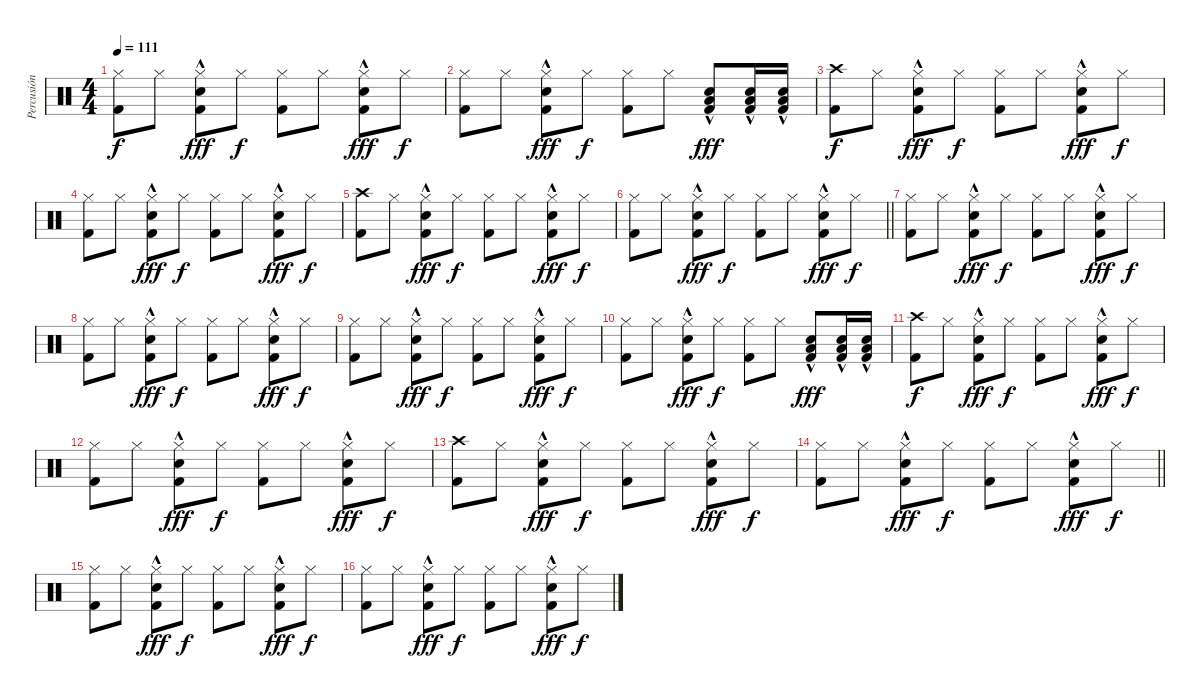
\track ("Percusión" "Percusión") {instrument percussion}
\staff {score}
\articulation defaults
\ts (4 4)
\tempo 111
\clef neutral
\ks c
("Hi-Hat (closed)" "Kick (hit) 2").8{dy f} "Hi-Hat (closed)".8 ("Electric Snare (hit)"{hac} "Hi-Hat (closed)"{hac} "Kick (hit) 2"{hac}).8{dy fff} "Hi-Hat (closed)".8{dy f} ("Hi-Hat (closed)" "Kick (hit) 2").8 "Hi-Hat (closed)".8 ("Electric Snare (hit)"{hac} "Hi-Hat (closed)"{hac} "Kick (hit) 2"{hac}).8{dy fff} "Hi-Hat (closed)".8{dy f} |
("Hi-Hat (closed)" "Kick (hit) 2").8 "Hi-Hat (closed)".8 ("Electric Snare (hit)"{hac} "Hi-Hat (closed)"{hac} "Kick (hit) 2"{hac}).8{dy fff} "Hi-Hat (closed)".8{dy f} ("Hi-Hat (closed)" "Kick (hit) 2").8 "Hi-Hat (closed)".8 ("Snare (hit) 2"{hac} "Low Floor Tom (hit)"{hac} "Kick (hit) 2"{hac}).8{dy fff} ("Snare (hit) 2"{hac} "Low Floor Tom (hit)"{hac} "Kick (hit) 2"{hac}).16 ("Snare (hit) 2"{hac} "Low Floor Tom (hit)"{hac} "Kick (hit) 2"{hac}).16 |
("Crash high (hit)" "Kick (hit) 2").8{dy f} "Hi-Hat (closed)".8 ("Electric Snare (hit)"{hac} "Hi-Hat (closed)"{hac} "Kick (hit) 2"{hac}).8{dy fff} "Hi-Hat (closed)".8{dy f} ("Hi-Hat (closed)" "Kick (hit) 2").8 "Hi-Hat (closed)".8 ("Electric Snare (hit)"{hac} "Hi-Hat (closed)"{hac} "Kick (hit) 2"{hac}).8{dy fff} "Hi-Hat (closed)".8{dy f} |
("Hi-Hat (closed)" "Kick (hit) 2").8 "Hi-Hat (closed)".8 ("Electric Snare (hit)"{hac} "Hi-Hat (closed)"{hac} "Kick (hit) 2"{hac}).8{dy fff} "Hi-Hat (closed)".8{dy f} ("Hi-Hat (closed)" "Kick (hit) 2").8 "Hi-Hat (closed)".8 ("Electric Snare (hit)"{hac} "Hi-Hat (closed)"{hac} "Kick (hit) 2"{hac}).8{dy fff} "Hi-Hat (closed)".8{dy f} |
("Crash high (hit)" "Kick (hit) 2").8 "Hi-Hat (closed)".8 ("Electric Snare (hit)"{hac} "Hi-Hat (closed)"{hac} "Kick (hit) 2"{hac}).8{dy fff} "Hi-Hat (closed)".8{dy f} ("Hi-Hat (closed)" "Kick (hit) 2").8 "Hi-Hat (closed)".8 ("Electric Snare (hit)"{hac} "Hi-Hat (closed)"{hac} "Kick (hit) 2"{hac}).8{dy fff} "Hi-Hat (closed)".8{dy f} |
\barLineRight lightlight
("Hi-Hat (closed)" "Kick (hit) 2").8 "Hi-Hat (closed)".8 ("Electric Snare (hit)"{hac} "Hi-Hat (closed)"{hac} "Kick (hit) 2"{hac}).8{dy fff} "Hi-Hat (closed)".8{dy f} ("Hi-Hat (closed)" "Kick (hit) 2").8 "Hi-Hat (closed)".8 ("Electric Snare (hit)"{hac} "Hi-Hat (closed)"{hac} "Kick (hit) 2"{hac}).8{dy fff} "Hi-Hat (closed)".8{dy f} |
("Hi-Hat (closed)" "Kick (hit) 2").8 "Hi-Hat (closed)".8 ("Electric Snare (hit)"{hac} "Hi-Hat (closed)"{hac} "Kick (hit) 2"{hac}).8{dy fff} "Hi-Hat (closed)".8{dy f} ("Hi-Hat (closed)" "Kick (hit) 2").8 "Hi-Hat (closed)".8 ("Electric Snare (hit)"{hac} "Hi-Hat (closed)"{hac} "Kick (hit) 2"{hac}).8{dy fff} "Hi-Hat (closed)".8{dy f} |
("Hi-Hat (closed)" "Kick (hit) 2").8 "Hi-Hat (closed)".8 ("Electric Snare (hit)"{hac} "Hi-Hat (closed)"{hac} "Kick (hit) 2"{hac}).8{dy fff} "Hi-Hat (closed)".8{dy f} ("Hi-Hat (closed)" "Kick (hit) 2").8 "Hi-Hat (closed)".8 ("Electric Snare (hit)"{hac} "Hi-Hat (closed)"{hac} "Kick (hit) 2"{hac}).8{dy fff} "Hi-Hat (closed)".8{dy f} |
("Hi-Hat (closed)" "Kick (hit) 2").8 "Hi-Hat (closed)".8 ("Electric Snare (hit)"{hac} "Hi-Hat (closed)"{hac} "Kick (hit) 2"{hac}).8{dy fff} "Hi-Hat (closed)".8{dy f} ("Hi-Hat (closed)" "Kick (hit) 2").8 "Hi-Hat (closed)".8 ("Electric Snare (hit)"{hac} "Hi-Hat (closed)"{hac} "Kick (hit) 2"{hac}).8{dy fff} "Hi-Hat (closed)".8{dy f} |
("Hi-Hat (closed)" "Kick (hit) 2").8 "Hi-Hat (closed)".8 ("Electric Snare (hit)"{hac} "Hi-Hat (closed)"{hac} "Kick (hit) 2"{hac}).8{dy fff} "Hi-Hat (closed)".8{dy f} ("Hi-Hat (closed)" "Kick (hit) 2").8 "Hi-Hat (closed)".8 ("Snare (hit) 2"{hac} "Low Floor Tom (hit)"{hac} "Kick (hit) 2"{hac}).8{dy fff} ("Snare (hit) 2"{hac} "Low Floor Tom (hit)"{hac} "Kick (hit) 2"{hac}).16 ("Snare (hit) 2"{hac} "Low Floor Tom (hit)"{hac} "Kick (hit) 2"{hac}).16 |
("Crash high (hit)" "Kick (hit) 2").8{dy f} "Hi-Hat (closed)".8 ("Electric Snare (hit)"{hac} "Hi-Hat (closed)"{hac} "Kick (hit) 2"{hac}).8{dy fff} "Hi-Hat (closed)".8{dy f} ("Hi-Hat (closed)" "Kick (hit) 2").8 "Hi-Hat (closed)".8 ("Electric Snare (hit)"{hac} "Hi-Hat (closed)"{hac} "Kick (hit) 2"{hac}).8{dy fff} "Hi-Hat (closed)".8{dy f} |
("Hi-Hat (closed)" "Kick (hit) 2").8 "Hi-Hat (closed)".8 ("Electric Snare (hit)"{hac} "Hi-Hat (closed)"{hac} "Kick (hit) 2"{hac}).8{dy fff} "Hi-Hat (closed)".8{dy f} ("Hi-Hat (closed)" "Kick (hit) 2").8 "Hi-Hat (closed)".8 ("Electric Snare (hit)"{hac} "Hi-Hat (closed)"{hac} "Kick (hit) 2"{hac}).8{dy fff} "Hi-Hat (closed)".8{dy f} |
("Crash high (hit)" "Kick (hit) 2").8 "Hi-Hat (closed)".8 ("Electric Snare (hit)"{hac} "Hi-Hat (closed)"{hac} "Kick (hit) 2"{hac}).8{dy fff} "Hi-Hat (closed)".8{dy f} ("Hi-Hat (closed)" "Kick (hit) 2").8 "Hi-Hat (closed)".8 ("Electric Snare (hit)"{hac} "Hi-Hat (closed)"{hac} "Kick (hit) 2"{hac}).8{dy fff} "Hi-Hat (closed)".8{dy f} |
\barLineRight lightlight
("Hi-Hat (closed)" "Kick (hit) 2").8 "Hi-Hat (closed)".8 ("Electric Snare (hit)"{hac} "Hi-Hat (closed)"{hac} "Kick (hit) 2"{hac}).8{dy fff} "Hi-Hat (closed)".8{dy f} ("Hi-Hat (closed)" "Kick (hit) 2").8 "Hi-Hat (closed)".8 ("Electric Snare (hit)"{hac} "Hi-Hat (closed)"{hac} "Kick (hit) 2"{hac}).8{dy fff} "Hi-Hat (closed)".8{dy f} |
("Hi-Hat (closed)" "Kick (hit) 2").8 "Hi-Hat (closed)".8 ("Electric Snare (hit)"{hac} "Hi-Hat (closed)"{hac} "Kick (hit) 2"{hac}).8{dy fff} "Hi-Hat (closed)".8{dy f} ("Hi-Hat (closed)" "Kick (hit) 2").8 "Hi-Hat (closed)".8 ("Electric Snare (hit)"{hac} "Hi-Hat (closed)"{hac} "Kick (hit) 2"{hac}).8{dy fff} "Hi-Hat (closed)".8{dy f} |
("Hi-Hat (closed)" "Kick (hit) 2").8 "Hi-Hat (closed)".8 ("Electric Snare (hit)"{hac} "Hi-Hat (closed)"{hac} "Kick (hit) 2"{hac}).8{dy fff} "Hi-Hat (closed)".8{dy f} ("Hi-Hat (closed)" "Kick (hit) 2").8 "Hi-Hat (closed)".8 ("Electric Snare (hit)"{hac} "Hi-Hat (closed)"{hac} "Kick (hit) 2"{hac}).8{dy fff} "Hi-Hat (closed)".8{dy f}
